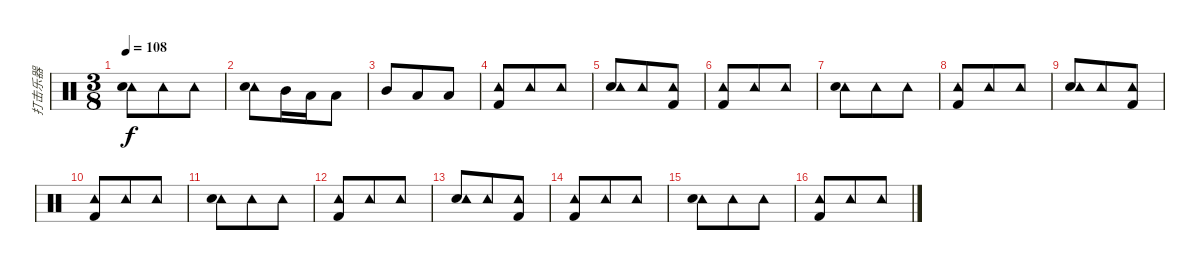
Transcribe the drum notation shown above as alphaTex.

\track ("打击乐器" "打击乐器") {instrument percussion}
\staff {score}
\articulation defaults
\ts (3 8)
\tempo 108
\clef neutral
\ks c
("Tambourine (hit)" "Snare (hit) 2").8{dy f} "Tambourine (hit)".8 "Tambourine (hit)".8 |
("Tambourine (hit)" "Snare (hit) 2").8 "Mid Tom (hit)".16 "Low Tom (hit)".16 "Low Floor Tom (hit)".8 |
"Mid Tom (hit)".8 "Low Tom (hit)".8 "Low Floor Tom (hit)".8 |
("Tambourine (hit)" "Kick (hit) 2").8 "Tambourine (hit)".8 "Tambourine (hit)".8 |
("Snare (hit) 2" "Tambourine (hit)").8 "Tambourine (hit)".8 ("Tambourine (hit)" "Kick (hit) 2").8 |
("Tambourine (hit)" "Kick (hit) 2").8 "Tambourine (hit)".8 "Tambourine (hit)".8 |
("Tambourine (hit)" "Snare (hit) 2").8 "Tambourine (hit)".8 "Tambourine (hit)".8 |
("Tambourine (hit)" "Kick (hit) 2").8 "Tambourine (hit)".8 "Tambourine (hit)".8 |
("Snare (hit) 2" "Tambourine (hit)").8 "Tambourine (hit)".8 ("Tambourine (hit)" "Kick (hit) 2").8 |
("Tambourine (hit)" "Kick (hit) 2").8 "Tambourine (hit)".8 "Tambourine (hit)".8 |
("Tambourine (hit)" "Snare (hit) 2").8 "Tambourine (hit)".8 "Tambourine (hit)".8 |
("Tambourine (hit)" "Kick (hit) 2").8 "Tambourine (hit)".8 "Tambourine (hit)".8 |
("Snare (hit) 2" "Tambourine (hit)").8 "Tambourine (hit)".8 ("Tambourine (hit)" "Kick (hit) 2").8 |
("Tambourine (hit)" "Kick (hit) 2").8 "Tambourine (hit)".8 "Tambourine (hit)".8 |
("Tambourine (hit)" "Snare (hit) 2").8 "Tambourine (hit)".8 "Tambourine (hit)".8 |
("Tambourine (hit)" "Kick (hit) 2").8 "Tambourine (hit)".8 "Tambourine (hit)".8
